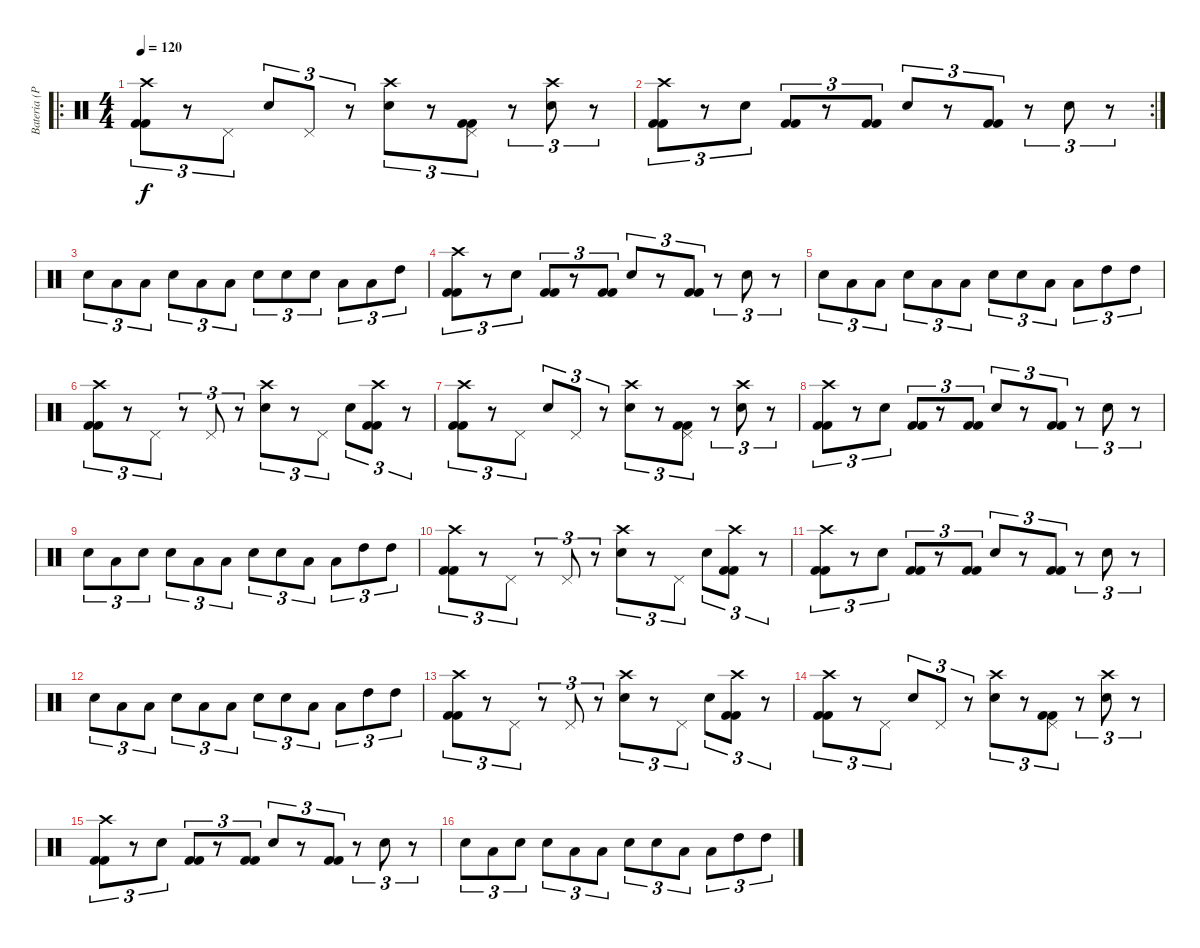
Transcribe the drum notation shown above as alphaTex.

\track ("Bateria (Pedro Cota)" "Bateria (P") {instrument percussion}
\staff {score}
\articulation defaults
\ro
\ts (4 4)
\tempo 120
\clef neutral
\ks c
("Crash high (hit)" "Kick (hit) 2" "Kick (hit) 2").8{tu (3 2) dy f} r.8{tu (3 2)} "Pedal Hi-Hat (hit)".8{tu (3 2)} "Snare (hit) 2".8{tu (3 2)} "Pedal Hi-Hat (hit)".8{tu (3 2)} r.8{tu (3 2)} ("Crash high (hit)" "Snare (hit) 2").8{tu (3 2)} r.8{tu (3 2)} ("Pedal Hi-Hat (hit)" "Kick (hit) 2" "Kick (hit) 2").8{tu (3 2)} r.8{tu (3 2)} ("Crash high (hit)" "Snare (hit) 2").8{tu (3 2)} r.8{tu (3 2)} |
\rc 2
("Crash high (hit)" "Kick (hit) 2" "Kick (hit) 2").8{tu (3 2)} r.8{tu (3 2)} "Snare (hit) 2".8{tu (3 2)} ("Kick (hit) 2" "Kick (hit) 2").8{tu (3 2)} r.8{tu (3 2)} ("Kick (hit) 2" "Kick (hit) 2").8{tu (3 2)} "Snare (hit) 2".8{tu (3 2)} r.8{tu (3 2)} ("Kick (hit) 2" "Kick (hit) 2").8{tu (3 2)} r.8{tu (3 2)} "Snare (hit) 2".8{tu (3 2)} r.8{tu (3 2)} |
"Snare (hit) 2".8{tu (3 2)} "Low Tom (hit)".8{tu (3 2)} "Low Tom (hit)".8{tu (3 2)} "Snare (hit) 2".8{tu (3 2)} "Low Tom (hit)".8{tu (3 2)} "Low Tom (hit)".8{tu (3 2)} "Snare (hit) 2".8{tu (3 2)} "Snare (hit) 2".8{tu (3 2)} "Snare (hit) 2".8{tu (3 2)} "Low Tom (hit)".8{tu (3 2)} "Low Tom (hit)".8{tu (3 2)} "High Tom (hit)".8{tu (3 2)} |
("Crash high (hit)" "Kick (hit) 2" "Kick (hit) 2").8{tu (3 2)} r.8{tu (3 2)} "Snare (hit) 2".8{tu (3 2)} ("Kick (hit) 2" "Kick (hit) 2").8{tu (3 2)} r.8{tu (3 2)} ("Kick (hit) 2" "Kick (hit) 2").8{tu (3 2)} "Snare (hit) 2".8{tu (3 2)} r.8{tu (3 2)} ("Kick (hit) 2" "Kick (hit) 2").8{tu (3 2)} r.8{tu (3 2)} "Snare (hit) 2".8{tu (3 2)} r.8{tu (3 2)} |
"Snare (hit) 2".8{tu (3 2)} "Low Tom (hit)".8{tu (3 2)} "Low Tom (hit)".8{tu (3 2)} "Snare (hit) 2".8{tu (3 2)} "Low Tom (hit)".8{tu (3 2)} "Low Tom (hit)".8{tu (3 2)} "Snare (hit) 2".8{tu (3 2)} "Snare (hit) 2".8{tu (3 2)} "Low Tom (hit)".8{tu (3 2)} "Low Tom (hit)".8{tu (3 2)} "High Tom (hit)".8{tu (3 2)} "High Tom (hit)".8{tu (3 2)} |
("Crash high (hit)" "Kick (hit) 2" "Kick (hit) 2").8{tu (3 2)} r.8{tu (3 2)} "Pedal Hi-Hat (hit)".8{tu (3 2)} r.8{tu (3 2)} "Pedal Hi-Hat (hit)".8{tu (3 2)} r.8{tu (3 2)} ("Crash high (hit)" "Snare (hit) 2").8{tu (3 2)} r.8{tu (3 2)} "Pedal Hi-Hat (hit)".8{tu (3 2)} "Snare (hit) 2".8{tu (3 2)} ("Crash high (hit)" "Kick (hit) 2" "Kick (hit) 2").8{tu (3 2)} r.8{tu (3 2)} |
("Crash high (hit)" "Kick (hit) 2" "Kick (hit) 2").8{tu (3 2)} r.8{tu (3 2)} "Pedal Hi-Hat (hit)".8{tu (3 2)} "Snare (hit) 2".8{tu (3 2)} "Pedal Hi-Hat (hit)".8{tu (3 2)} r.8{tu (3 2)} ("Crash high (hit)" "Snare (hit) 2").8{tu (3 2)} r.8{tu (3 2)} ("Pedal Hi-Hat (hit)" "Kick (hit) 2" "Kick (hit) 2").8{tu (3 2)} r.8{tu (3 2)} ("Crash high (hit)" "Snare (hit) 2").8{tu (3 2)} r.8{tu (3 2)} |
("Crash high (hit)" "Kick (hit) 2" "Kick (hit) 2").8{tu (3 2)} r.8{tu (3 2)} "Snare (hit) 2".8{tu (3 2)} ("Kick (hit) 2" "Kick (hit) 2").8{tu (3 2)} r.8{tu (3 2)} ("Kick (hit) 2" "Kick (hit) 2").8{tu (3 2)} "Snare (hit) 2".8{tu (3 2)} r.8{tu (3 2)} ("Kick (hit) 2" "Kick (hit) 2").8{tu (3 2)} r.8{tu (3 2)} "Snare (hit) 2".8{tu (3 2)} r.8{tu (3 2)} |
"Snare (hit) 2".8{tu (3 2)} "Low Tom (hit)".8{tu (3 2)} "Snare (hit) 2".8{tu (3 2)} "Snare (hit) 2".8{tu (3 2)} "Low Tom (hit)".8{tu (3 2)} "Low Tom (hit)".8{tu (3 2)} "Snare (hit) 2".8{tu (3 2)} "Snare (hit) 2".8{tu (3 2)} "Low Tom (hit)".8{tu (3 2)} "Low Tom (hit)".8{tu (3 2)} "High Tom (hit)".8{tu (3 2)} "High Tom (hit)".8{tu (3 2)} |
("Crash high (hit)" "Kick (hit) 2" "Kick (hit) 2").8{tu (3 2)} r.8{tu (3 2)} "Pedal Hi-Hat (hit)".8{tu (3 2)} r.8{tu (3 2)} "Pedal Hi-Hat (hit)".8{tu (3 2)} r.8{tu (3 2)} ("Crash high (hit)" "Snare (hit) 2").8{tu (3 2)} r.8{tu (3 2)} "Pedal Hi-Hat (hit)".8{tu (3 2)} "Snare (hit) 2".8{tu (3 2)} ("Crash high (hit)" "Kick (hit) 2" "Kick (hit) 2").8{tu (3 2)} r.8{tu (3 2)} |
("Crash high (hit)" "Kick (hit) 2" "Kick (hit) 2").8{tu (3 2)} r.8{tu (3 2)} "Snare (hit) 2".8{tu (3 2)} ("Kick (hit) 2" "Kick (hit) 2").8{tu (3 2)} r.8{tu (3 2)} ("Kick (hit) 2" "Kick (hit) 2").8{tu (3 2)} "Snare (hit) 2".8{tu (3 2)} r.8{tu (3 2)} ("Kick (hit) 2" "Kick (hit) 2").8{tu (3 2)} r.8{tu (3 2)} "Snare (hit) 2".8{tu (3 2)} r.8{tu (3 2)} |
"Snare (hit) 2".8{tu (3 2)} "Low Tom (hit)".8{tu (3 2)} "Low Tom (hit)".8{tu (3 2)} "Snare (hit) 2".8{tu (3 2)} "Low Tom (hit)".8{tu (3 2)} "Low Tom (hit)".8{tu (3 2)} "Snare (hit) 2".8{tu (3 2)} "Snare (hit) 2".8{tu (3 2)} "Low Tom (hit)".8{tu (3 2)} "Low Tom (hit)".8{tu (3 2)} "High Tom (hit)".8{tu (3 2)} "High Tom (hit)".8{tu (3 2)} |
("Crash high (hit)" "Kick (hit) 2" "Kick (hit) 2").8{tu (3 2)} r.8{tu (3 2)} "Pedal Hi-Hat (hit)".8{tu (3 2)} r.8{tu (3 2)} "Pedal Hi-Hat (hit)".8{tu (3 2)} r.8{tu (3 2)} ("Crash high (hit)" "Snare (hit) 2").8{tu (3 2)} r.8{tu (3 2)} "Pedal Hi-Hat (hit)".8{tu (3 2)} "Snare (hit) 2".8{tu (3 2)} ("Crash high (hit)" "Kick (hit) 2" "Kick (hit) 2").8{tu (3 2)} r.8{tu (3 2)} |
("Crash high (hit)" "Kick (hit) 2" "Kick (hit) 2").8{tu (3 2)} r.8{tu (3 2)} "Pedal Hi-Hat (hit)".8{tu (3 2)} "Snare (hit) 2".8{tu (3 2)} "Pedal Hi-Hat (hit)".8{tu (3 2)} r.8{tu (3 2)} ("Crash high (hit)" "Snare (hit) 2").8{tu (3 2)} r.8{tu (3 2)} ("Pedal Hi-Hat (hit)" "Kick (hit) 2" "Kick (hit) 2").8{tu (3 2)} r.8{tu (3 2)} ("Crash high (hit)" "Snare (hit) 2").8{tu (3 2)} r.8{tu (3 2)} |
("Crash high (hit)" "Kick (hit) 2" "Kick (hit) 2").8{tu (3 2)} r.8{tu (3 2)} "Snare (hit) 2".8{tu (3 2)} ("Kick (hit) 2" "Kick (hit) 2").8{tu (3 2)} r.8{tu (3 2)} ("Kick (hit) 2" "Kick (hit) 2").8{tu (3 2)} "Snare (hit) 2".8{tu (3 2)} r.8{tu (3 2)} ("Kick (hit) 2" "Kick (hit) 2").8{tu (3 2)} r.8{tu (3 2)} "Snare (hit) 2".8{tu (3 2)} r.8{tu (3 2)} |
"Snare (hit) 2".8{tu (3 2)} "Low Tom (hit)".8{tu (3 2)} "Snare (hit) 2".8{tu (3 2)} "Snare (hit) 2".8{tu (3 2)} "Low Tom (hit)".8{tu (3 2)} "Low Tom (hit)".8{tu (3 2)} "Snare (hit) 2".8{tu (3 2)} "Snare (hit) 2".8{tu (3 2)} "Low Tom (hit)".8{tu (3 2)} "Low Tom (hit)".8{tu (3 2)} "High Tom (hit)".8{tu (3 2)} "High Tom (hit)".8{tu (3 2)}
